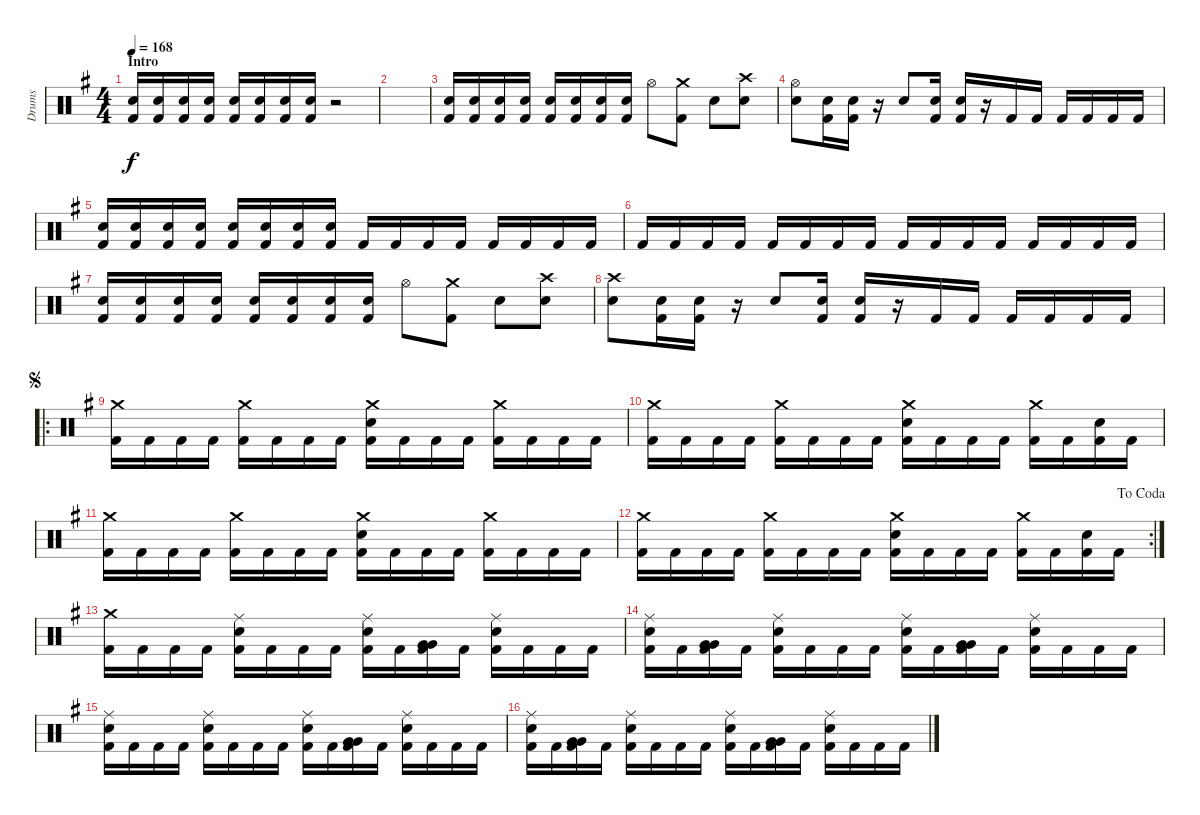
\track ("Drums" "Drums") {instrument percussion}
\staff {score}
\articulation defaults
\ts (4 4)
\section ("" "Intro")
\tempo 168
\clef neutral
\ks g
("Electric Snare (hit)" "Kick (hit) 2").16{dy f} ("Electric Snare (hit)" "Kick (hit) 2").16 ("Electric Snare (hit)" "Kick (hit) 2").16 ("Electric Snare (hit)" "Kick (hit) 2").16 ("Electric Snare (hit)" "Kick (hit) 2").16 ("Electric Snare (hit)" "Kick (hit) 2").16 ("Electric Snare (hit)" "Kick (hit) 2").16 ("Electric Snare (hit)" "Kick (hit) 2").16 r.2 |
|
("Electric Snare (hit)" "Kick (hit) 2").16 ("Electric Snare (hit)" "Kick (hit) 2").16 ("Electric Snare (hit)" "Kick (hit) 2").16 ("Electric Snare (hit)" "Kick (hit) 2").16 ("Electric Snare (hit)" "Kick (hit) 2").16 ("Electric Snare (hit)" "Kick (hit) 2").16 ("Electric Snare (hit)" "Kick (hit) 2").16 ("Electric Snare (hit)" "Kick (hit) 2").16 "Hi-Hat (open)".8 ("Crash medium (hit)" "Kick (hit) 2").8 "Electric Snare (hit)".8 ("Crash high (hit)" "Electric Snare (hit)").8 |
("Hi-Hat (open)" "Electric Snare (hit)").8 ("Electric Snare (hit)" "Kick (hit) 2").16 ("Electric Snare (hit)" "Kick (hit) 2").16 r.16 "Electric Snare (hit)".8 ("Electric Snare (hit)" "Kick (hit) 2").16 ("Electric Snare (hit)" "Kick (hit) 2").16 r.16 "Kick (hit) 2".16 "Kick (hit) 2".16 "Kick (hit) 2".16 "Kick (hit) 2".16 "Kick (hit) 2".16 "Kick (hit) 2".16 |
("Electric Snare (hit)" "Kick (hit) 2").16 ("Electric Snare (hit)" "Kick (hit) 2").16 ("Electric Snare (hit)" "Kick (hit) 2").16 ("Electric Snare (hit)" "Kick (hit) 2").16 ("Electric Snare (hit)" "Kick (hit) 2").16 ("Electric Snare (hit)" "Kick (hit) 2").16 ("Electric Snare (hit)" "Kick (hit) 2").16 ("Electric Snare (hit)" "Kick (hit) 2").16 "Kick (hit) 2".16 "Kick (hit) 2".16 "Kick (hit) 2".16 "Kick (hit) 2".16 "Kick (hit) 2".16 "Kick (hit) 2".16 "Kick (hit) 2".16 "Kick (hit) 2".16 |
"Kick (hit) 2".16 "Kick (hit) 2".16 "Kick (hit) 2".16 "Kick (hit) 2".16 "Kick (hit) 2".16 "Kick (hit) 2".16 "Kick (hit) 2".16 "Kick (hit) 2".16 "Kick (hit) 2".16 "Kick (hit) 2".16 "Kick (hit) 2".16 "Kick (hit) 2".16 "Kick (hit) 2".16 "Kick (hit) 2".16 "Kick (hit) 2".16 "Kick (hit) 2".16 |
("Electric Snare (hit)" "Kick (hit) 2").16 ("Electric Snare (hit)" "Kick (hit) 2").16 ("Electric Snare (hit)" "Kick (hit) 2").16 ("Electric Snare (hit)" "Kick (hit) 2").16 ("Electric Snare (hit)" "Kick (hit) 2").16 ("Electric Snare (hit)" "Kick (hit) 2").16 ("Electric Snare (hit)" "Kick (hit) 2").16 ("Electric Snare (hit)" "Kick (hit) 2").16 "Hi-Hat (open)".8 ("Crash medium (hit)" "Kick (hit) 2").8 "Electric Snare (hit)".8 ("Crash high (hit)" "Electric Snare (hit)").8 |
("Crash high (hit)" "Electric Snare (hit)").8 ("Electric Snare (hit)" "Kick (hit) 2").16 ("Electric Snare (hit)" "Kick (hit) 2").16 r.16 "Electric Snare (hit)".8 ("Electric Snare (hit)" "Kick (hit) 2").16 ("Electric Snare (hit)" "Kick (hit) 2").16 r.16 "Kick (hit) 2".16 "Kick (hit) 2".16 "Kick (hit) 2".16 "Kick (hit) 2".16 "Kick (hit) 2".16 "Kick (hit) 2".16 |
\ro
\jump segno
("Crash medium (hit)" "Kick (hit) 2").16 "Kick (hit) 2".16 "Kick (hit) 2".16 "Kick (hit) 2".16 ("Crash medium (hit)" "Kick (hit) 2").16 "Kick (hit) 2".16 "Kick (hit) 2".16 "Kick (hit) 2".16 ("Crash medium (hit)" "Electric Snare (hit)" "Kick (hit) 2").16 "Kick (hit) 2".16 "Kick (hit) 2".16 "Kick (hit) 2".16 ("Crash medium (hit)" "Kick (hit) 2").16 "Kick (hit) 2".16 "Kick (hit) 2".16 "Kick (hit) 2".16 |
("Crash medium (hit)" "Kick (hit) 2").16 "Kick (hit) 2".16 "Kick (hit) 2".16 "Kick (hit) 2".16 ("Crash medium (hit)" "Kick (hit) 2").16 "Kick (hit) 2".16 "Kick (hit) 2".16 "Kick (hit) 2".16 ("Crash medium (hit)" "Electric Snare (hit)" "Kick (hit) 2").16 "Kick (hit) 2".16 "Kick (hit) 2".16 "Kick (hit) 2".16 ("Crash medium (hit)" "Kick (hit) 2").16 "Kick (hit) 2".16 ("Electric Snare (hit)" "Kick (hit) 2").16 "Kick (hit) 2".16 |
("Crash medium (hit)" "Kick (hit) 2").16 "Kick (hit) 2".16 "Kick (hit) 2".16 "Kick (hit) 2".16 ("Crash medium (hit)" "Kick (hit) 2").16 "Kick (hit) 2".16 "Kick (hit) 2".16 "Kick (hit) 2".16 ("Crash medium (hit)" "Electric Snare (hit)" "Kick (hit) 2").16 "Kick (hit) 2".16 "Kick (hit) 2".16 "Kick (hit) 2".16 ("Crash medium (hit)" "Kick (hit) 2").16 "Kick (hit) 2".16 "Kick (hit) 2".16 "Kick (hit) 2".16 |
\rc 2
\jump dacoda
("Crash medium (hit)" "Kick (hit) 2").16 "Kick (hit) 2".16 "Kick (hit) 2".16 "Kick (hit) 2".16 ("Crash medium (hit)" "Kick (hit) 2").16 "Kick (hit) 2".16 "Kick (hit) 2".16 "Kick (hit) 2".16 ("Crash medium (hit)" "Electric Snare (hit)" "Kick (hit) 2").16 "Kick (hit) 2".16 "Kick (hit) 2".16 "Kick (hit) 2".16 ("Crash medium (hit)" "Kick (hit) 2").16 "Kick (hit) 2".16 ("Electric Snare (hit)" "Kick (hit) 2").16 "Kick (hit) 2".16 |
("Crash medium (hit)" "Kick (hit) 2").16 "Kick (hit) 2".16 "Kick (hit) 2".16 "Kick (hit) 2".16 ("Ride (middle)" "Electric Snare (hit)" "Kick (hit) 2").16 "Kick (hit) 2".16 "Kick (hit) 2".16 "Kick (hit) 2".16 ("Ride (middle)" "Electric Snare (hit)" "Kick (hit) 2").16 "Kick (hit) 2".16 ("Very Low Tom (hit)" "Very Low Tom (hit)" "Kick (hit) 2").16 "Kick (hit) 2".16 ("Ride (middle)" "Electric Snare (hit)" "Kick (hit) 2").16 "Kick (hit) 2".16 "Kick (hit) 2".16 "Kick (hit) 2".16 |
("Ride (middle)" "Electric Snare (hit)" "Kick (hit) 2").16 "Kick (hit) 2".16 ("Very Low Tom (hit)" "Very Low Tom (hit)" "Kick (hit) 2").16 "Kick (hit) 2".16 ("Ride (middle)" "Electric Snare (hit)" "Kick (hit) 2").16 "Kick (hit) 2".16 "Kick (hit) 2".16 "Kick (hit) 2".16 ("Ride (middle)" "Electric Snare (hit)" "Kick (hit) 2").16 "Kick (hit) 2".16 ("Very Low Tom (hit)" "Very Low Tom (hit)" "Kick (hit) 2").16 "Kick (hit) 2".16 ("Ride (middle)" "Electric Snare (hit)" "Kick (hit) 2").16 "Kick (hit) 2".16 "Kick (hit) 2".16 "Kick (hit) 2".16 |
("Ride (middle)" "Electric Snare (hit)" "Kick (hit) 2").16 "Kick (hit) 2".16 "Kick (hit) 2".16 "Kick (hit) 2".16 ("Ride (middle)" "Electric Snare (hit)" "Kick (hit) 2").16 "Kick (hit) 2".16 "Kick (hit) 2".16 "Kick (hit) 2".16 ("Ride (middle)" "Electric Snare (hit)" "Kick (hit) 2").16 "Kick (hit) 2".16 ("Very Low Tom (hit)" "Very Low Tom (hit)" "Kick (hit) 2").16 "Kick (hit) 2".16 ("Ride (middle)" "Electric Snare (hit)" "Kick (hit) 2").16 "Kick (hit) 2".16 "Kick (hit) 2".16 "Kick (hit) 2".16 |
("Ride (middle)" "Electric Snare (hit)" "Kick (hit) 2").16 "Kick (hit) 2".16 ("Very Low Tom (hit)" "Very Low Tom (hit)" "Kick (hit) 2").16 "Kick (hit) 2".16 ("Ride (middle)" "Electric Snare (hit)" "Kick (hit) 2").16 "Kick (hit) 2".16 "Kick (hit) 2".16 "Kick (hit) 2".16 ("Ride (middle)" "Electric Snare (hit)" "Kick (hit) 2").16 "Kick (hit) 2".16 ("Very Low Tom (hit)" "Very Low Tom (hit)" "Kick (hit) 2").16 "Kick (hit) 2".16 ("Ride (middle)" "Electric Snare (hit)" "Kick (hit) 2").16 "Kick (hit) 2".16 "Kick (hit) 2".16 "Kick (hit) 2".16
